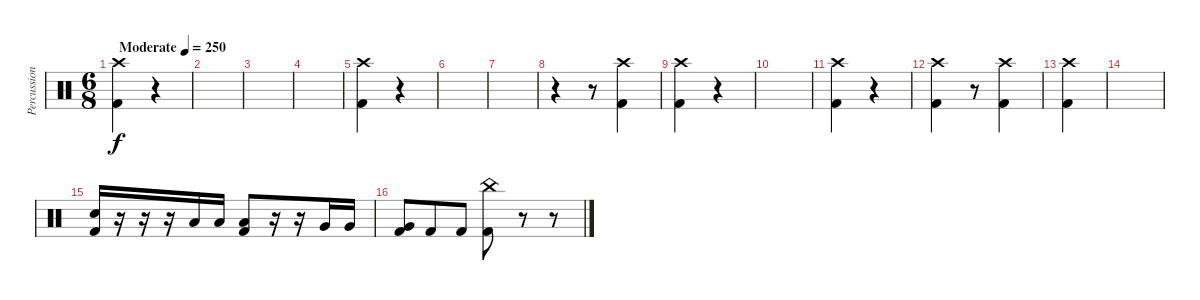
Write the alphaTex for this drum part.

\track ("Percussion" "Percussion") {instrument percussion}
\staff {score}
\articulation defaults
\ts (6 8)
\tempo (250 "Moderate")
\clef neutral
\ks c
("Crash high (hit)" "Kick (hit) 2").4{dy f} r.4{volume 0} |
|
|
|
("Crash high (hit)" "Kick (hit) 2").4{volume 13} r.4{volume 0} |
|
|
r.4 r.8 ("Crash high (hit)" "Kick (hit) 2").4{volume 13} |
("Crash high (hit)" "Kick (hit) 2").4{volume 13} r.4{volume 0} |
|
("Crash high (hit)" "Kick (hit) 2").4{volume 13} r.4{volume 0} |
("Crash high (hit)" "Kick (hit) 2").4{volume 13} r.8 ("Crash high (hit)" "Kick (hit) 2").4{volume 13} |
("Crash high (hit)" "Kick (hit) 2").4{volume 13} |
|
("Electric Snare (hit)" "Kick (hit) 2").16 r.16 r.16 r.16 "Low Tom (hit)".16 "Low Tom (hit)".16 ("Low Tom (hit)" "Kick (hit) 2").8 r.16 r.16 "Very Low Tom (hit)".16 "Very Low Tom (hit)".16 |
("Very Low Tom (hit)" "Kick (hit) 2").8 "Kick (hit) 2".8 "Kick (hit) 2".8 ("China (hit)" "Kick (hit) 2").8 r.8 r.8
